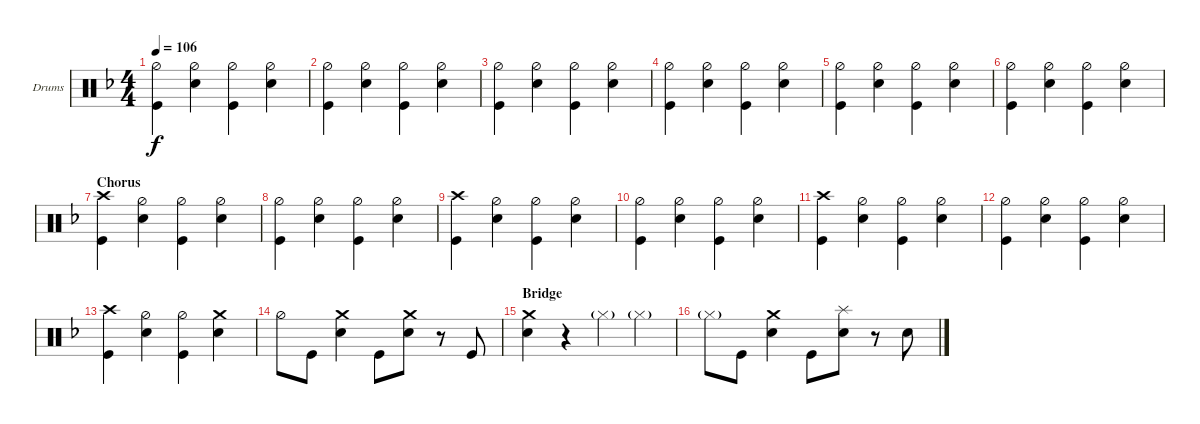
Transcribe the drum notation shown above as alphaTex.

\defaultSystemsLayout 4
\bracketExtendMode groupsimilarinstruments
\firstSystemTrackNameOrientation horizontal
\otherSystemsTrackNameOrientation horizontal
\track ("Simon Wright" "Drums") {instrument percussion}
\staff {score}
\articulation defaults
\ts (4 4)
\tempo 106
\clef neutral
\ks dminor
("Kick (hit)" "Hi-Hat (half)").4{dy f} ("Snare (hit) 2" "Hi-Hat (half)").4 ("Kick (hit)" "Hi-Hat (half)").4 ("Hi-Hat (half)" "Snare (hit) 2").4 |
("Kick (hit)" "Hi-Hat (half)").4 ("Hi-Hat (half)" "Snare (hit) 2").4 ("Kick (hit)" "Hi-Hat (half)").4 ("Hi-Hat (half)" "Snare (hit) 2").4 |
("Kick (hit)" "Hi-Hat (half)").4 ("Snare (hit) 2" "Hi-Hat (half)").4 ("Kick (hit)" "Hi-Hat (half)").4 ("Hi-Hat (half)" "Snare (hit) 2").4 |
("Kick (hit)" "Hi-Hat (half)").4 ("Hi-Hat (half)" "Snare (hit) 2").4 ("Kick (hit)" "Hi-Hat (half)").4 ("Hi-Hat (half)" "Snare (hit) 2").4 |
\scale
0.506273 ("Kick (hit)" "Hi-Hat (half)").4 ("Snare (hit) 2" "Hi-Hat (half)").4 ("Kick (hit)" "Hi-Hat (half)").4 ("Hi-Hat (half)" "Snare (hit) 2").4 |
\scale
0.494117 ("Kick (hit)" "Hi-Hat (half)").4 ("Hi-Hat (half)" "Snare (hit) 2").4 ("Kick (hit)" "Hi-Hat (half)").4 ("Hi-Hat (half)" "Snare (hit) 2").4 |
\section ("" "Chorus")
("Kick (hit)" "Crash high (hit)").4 ("Snare (hit) 2" "Hi-Hat (half)").4 ("Kick (hit)" "Hi-Hat (half)").4 ("Hi-Hat (half)" "Snare (hit) 2").4 |
("Kick (hit)" "Hi-Hat (half)").4 ("Hi-Hat (half)" "Snare (hit) 2").4 ("Kick (hit)" "Hi-Hat (half)").4 ("Hi-Hat (half)" "Snare (hit) 2").4 |
("Kick (hit)" "Crash high (hit)").4 ("Snare (hit) 2" "Hi-Hat (half)").4 ("Kick (hit)" "Hi-Hat (half)").4 ("Hi-Hat (half)" "Snare (hit) 2").4 |
("Kick (hit)" "Hi-Hat (half)").4 ("Hi-Hat (half)" "Snare (hit) 2").4 ("Kick (hit)" "Hi-Hat (half)").4 ("Hi-Hat (half)" "Snare (hit) 2").4 |
("Kick (hit)" "Crash high (hit)").4 ("Snare (hit) 2" "Hi-Hat (half)").4 ("Kick (hit)" "Hi-Hat (half)").4 ("Hi-Hat (half)" "Snare (hit) 2").4 |
("Kick (hit)" "Hi-Hat (half)").4 ("Hi-Hat (half)" "Snare (hit) 2").4 ("Kick (hit)" "Hi-Hat (half)").4 ("Hi-Hat (half)" "Snare (hit) 2").4 |
("Kick (hit)" "Crash high (hit)").4 ("Snare (hit) 2" "Hi-Hat (half)").4 ("Kick (hit)" "Hi-Hat (half)").4 ("Snare (hit) 2" "Crash medium (hit)").4 |
"Hi-Hat (half)".8 "Kick (hit)".8 ("Snare (hit) 2" "Crash medium (hit)").4 "Kick (hit)".8 ("Snare (hit) 2" "Crash medium (hit)").8 r.8 "Kick (hit)".8 |
\section ("" "Bridge")
("Snare (hit) 2" "Crash medium (hit)").4 r.4 "Hi-Hat (closed)"{g}.4 "Hi-Hat (closed)"{g}.4 |
"Hi-Hat (closed)"{g}.8 "Kick (hit)".8 ("Snare (hit) 2" "Crash medium (hit)").4 "Kick (hit)".8 ("Snare (hit) 2" "Splash (hit)").8 r.8 "Snare (hit) 2".8
